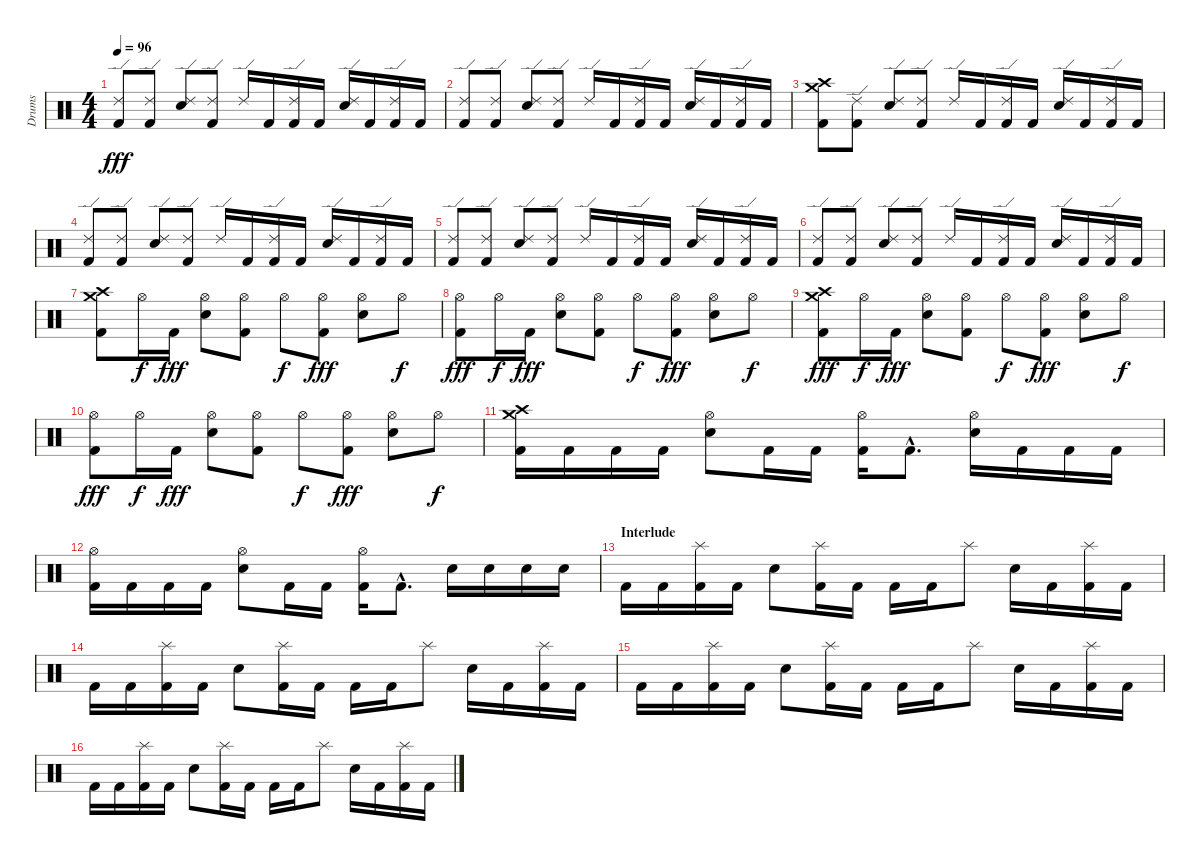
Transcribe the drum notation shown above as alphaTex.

\track ("Drums" "Drums") {instrument percussion}
\staff {score}
\articulation defaults
\ts (4 4)
\tempo 96
\clef neutral
\ks c
("Ride (edge) 2" "Kick (hit) 2").8{dy fff} ("Ride (edge) 2" "Kick (hit) 2").8 ("Ride (edge) 2" "Electric Snare (hit)").8 ("Ride (edge) 2" "Kick (hit) 2").8 "Ride (edge) 2".16 "Kick (hit) 2".16 ("Ride (edge) 2" "Kick (hit) 2").16 "Kick (hit) 2".16 ("Ride (edge) 2" "Electric Snare (hit)").16 "Kick (hit) 2".16 ("Ride (edge) 2" "Kick (hit) 2").16 "Kick (hit) 2".16 |
("Ride (edge) 2" "Kick (hit) 2").8 ("Ride (edge) 2" "Kick (hit) 2").8 ("Ride (edge) 2" "Electric Snare (hit)").8 ("Ride (edge) 2" "Kick (hit) 2").8 "Ride (edge) 2".16 "Kick (hit) 2".16 ("Ride (edge) 2" "Kick (hit) 2").16 "Kick (hit) 2".16 ("Ride (edge) 2" "Electric Snare (hit)").16 "Kick (hit) 2".16 ("Ride (edge) 2" "Kick (hit) 2").16 "Kick (hit) 2".16 |
("Crash high (hit)" "Crash medium (hit)" "Kick (hit) 2").8 ("Ride (edge) 2" "Kick (hit) 2").8 ("Ride (edge) 2" "Electric Snare (hit)").8 ("Ride (edge) 2" "Kick (hit) 2").8 "Ride (edge) 2".16 "Kick (hit) 2".16 ("Ride (edge) 2" "Kick (hit) 2").16 "Kick (hit) 2".16 ("Ride (edge) 2" "Electric Snare (hit)").16 "Kick (hit) 2".16 ("Ride (edge) 2" "Kick (hit) 2").16 "Kick (hit) 2".16 |
("Ride (edge) 2" "Kick (hit) 2").8 ("Ride (edge) 2" "Kick (hit) 2").8 ("Ride (edge) 2" "Electric Snare (hit)").8 ("Ride (edge) 2" "Kick (hit) 2").8 "Ride (edge) 2".16 "Kick (hit) 2".16 ("Ride (edge) 2" "Kick (hit) 2").16 "Kick (hit) 2".16 ("Ride (edge) 2" "Electric Snare (hit)").16 "Kick (hit) 2".16 ("Ride (edge) 2" "Kick (hit) 2").16 "Kick (hit) 2".16 |
("Ride (edge) 2" "Kick (hit) 2").8 ("Ride (edge) 2" "Kick (hit) 2").8 ("Ride (edge) 2" "Electric Snare (hit)").8 ("Ride (edge) 2" "Kick (hit) 2").8 "Ride (edge) 2".16 "Kick (hit) 2".16 ("Ride (edge) 2" "Kick (hit) 2").16 "Kick (hit) 2".16 ("Ride (edge) 2" "Electric Snare (hit)").16 "Kick (hit) 2".16 ("Ride (edge) 2" "Kick (hit) 2").16 "Kick (hit) 2".16 |
("Ride (edge) 2" "Kick (hit) 2").8 ("Ride (edge) 2" "Kick (hit) 2").8 ("Ride (edge) 2" "Electric Snare (hit)").8 ("Ride (edge) 2" "Kick (hit) 2").8 "Ride (edge) 2".16 "Kick (hit) 2".16 ("Ride (edge) 2" "Kick (hit) 2").16 "Kick (hit) 2".16 ("Ride (edge) 2" "Electric Snare (hit)").16 "Kick (hit) 2".16 ("Ride (edge) 2" "Kick (hit) 2").16 "Kick (hit) 2".16 |
("Crash high (hit)" "Crash medium (hit)" "Kick (hit) 2").8 "Hi-Hat (open)".16{dy f} "Kick (hit) 2".16{dy fff} ("Hi-Hat (open)" "Electric Snare (hit)").8 ("Hi-Hat (open)" "Kick (hit) 2").8 "Hi-Hat (open)".8{dy f} ("Hi-Hat (open)" "Kick (hit) 2").8{dy fff} ("Hi-Hat (open)" "Electric Snare (hit)").8 "Hi-Hat (open)".8{dy f} |
("Hi-Hat (open)" "Kick (hit) 2").8{dy fff} "Hi-Hat (open)".16{dy f} "Kick (hit) 2".16{dy fff} ("Hi-Hat (open)" "Electric Snare (hit)").8 ("Hi-Hat (open)" "Kick (hit) 2").8 "Hi-Hat (open)".8{dy f} ("Hi-Hat (open)" "Kick (hit) 2").8{dy fff} ("Hi-Hat (open)" "Electric Snare (hit)").8 "Hi-Hat (open)".8{dy f} |
("Crash high (hit)" "Crash medium (hit)" "Kick (hit) 2").8{dy fff} "Hi-Hat (open)".16{dy f} "Kick (hit) 2".16{dy fff} ("Hi-Hat (open)" "Electric Snare (hit)").8 ("Hi-Hat (open)" "Kick (hit) 2").8 "Hi-Hat (open)".8{dy f} ("Hi-Hat (open)" "Kick (hit) 2").8{dy fff} ("Hi-Hat (open)" "Electric Snare (hit)").8 "Hi-Hat (open)".8{dy f} |
("Hi-Hat (open)" "Kick (hit) 2").8{dy fff} "Hi-Hat (open)".16{dy f} "Kick (hit) 2".16{dy fff} ("Hi-Hat (open)" "Electric Snare (hit)").8 ("Hi-Hat (open)" "Kick (hit) 2").8 "Hi-Hat (open)".8{dy f} ("Hi-Hat (open)" "Kick (hit) 2").8{dy fff} ("Hi-Hat (open)" "Electric Snare (hit)").8 "Hi-Hat (open)".8{dy f} |
("Crash high (hit)" "Crash medium (hit)" "Kick (hit) 2").16 "Kick (hit) 2".16 "Kick (hit) 2".16 "Kick (hit) 2".16 ("Hi-Hat (open)" "Electric Snare (hit)").8 "Kick (hit) 2".16 "Kick (hit) 2".16 ("Hi-Hat (open)" "Kick (hit) 2").16 "Kick (hit) 2"{hac}.8{d} ("Hi-Hat (open)" "Electric Snare (hit)").16 "Kick (hit) 2".16 "Kick (hit) 2".16 "Kick (hit) 2".16 |
("Hi-Hat (open)" "Kick (hit) 2").16 "Kick (hit) 2".16 "Kick (hit) 2".16 "Kick (hit) 2".16 ("Hi-Hat (open)" "Electric Snare (hit)").8 "Kick (hit) 2".16 "Kick (hit) 2".16 ("Hi-Hat (open)" "Kick (hit) 2").16 "Kick (hit) 2"{hac}.8{d} "Electric Snare (hit)".16 "Electric Snare (hit)".16 "Electric Snare (hit)".16 "Electric Snare (hit)".16 |
\section ("" "Interlude")
"Kick (hit) 2".16 "Kick (hit) 2".16 ("Splash (hit)" "Kick (hit) 2").16 "Kick (hit) 2".16 "Electric Snare (hit)".8 ("Splash (hit)" "Kick (hit) 2").16 "Kick (hit) 2".16 "Kick (hit) 2".16 "Kick (hit) 2".16 "Splash (hit)".8 "Electric Snare (hit)".16 "Kick (hit) 2".16 ("Splash (hit)" "Kick (hit) 2").16 "Kick (hit) 2".16 |
"Kick (hit) 2".16 "Kick (hit) 2".16 ("Splash (hit)" "Kick (hit) 2").16 "Kick (hit) 2".16 "Electric Snare (hit)".8 ("Splash (hit)" "Kick (hit) 2").16 "Kick (hit) 2".16 "Kick (hit) 2".16 "Kick (hit) 2".16 "Splash (hit)".8 "Electric Snare (hit)".16 "Kick (hit) 2".16 ("Splash (hit)" "Kick (hit) 2").16 "Kick (hit) 2".16 |
"Kick (hit) 2".16 "Kick (hit) 2".16 ("Splash (hit)" "Kick (hit) 2").16 "Kick (hit) 2".16 "Electric Snare (hit)".8 ("Splash (hit)" "Kick (hit) 2").16 "Kick (hit) 2".16 "Kick (hit) 2".16 "Kick (hit) 2".16 "Splash (hit)".8 "Electric Snare (hit)".16 "Kick (hit) 2".16 ("Splash (hit)" "Kick (hit) 2").16 "Kick (hit) 2".16 |
"Kick (hit) 2".16 "Kick (hit) 2".16 ("Splash (hit)" "Kick (hit) 2").16 "Kick (hit) 2".16 "Electric Snare (hit)".8 ("Splash (hit)" "Kick (hit) 2").16 "Kick (hit) 2".16 "Kick (hit) 2".16 "Kick (hit) 2".16 "Splash (hit)".8 "Electric Snare (hit)".16 "Kick (hit) 2".16 ("Splash (hit)" "Kick (hit) 2").16 "Kick (hit) 2".16
